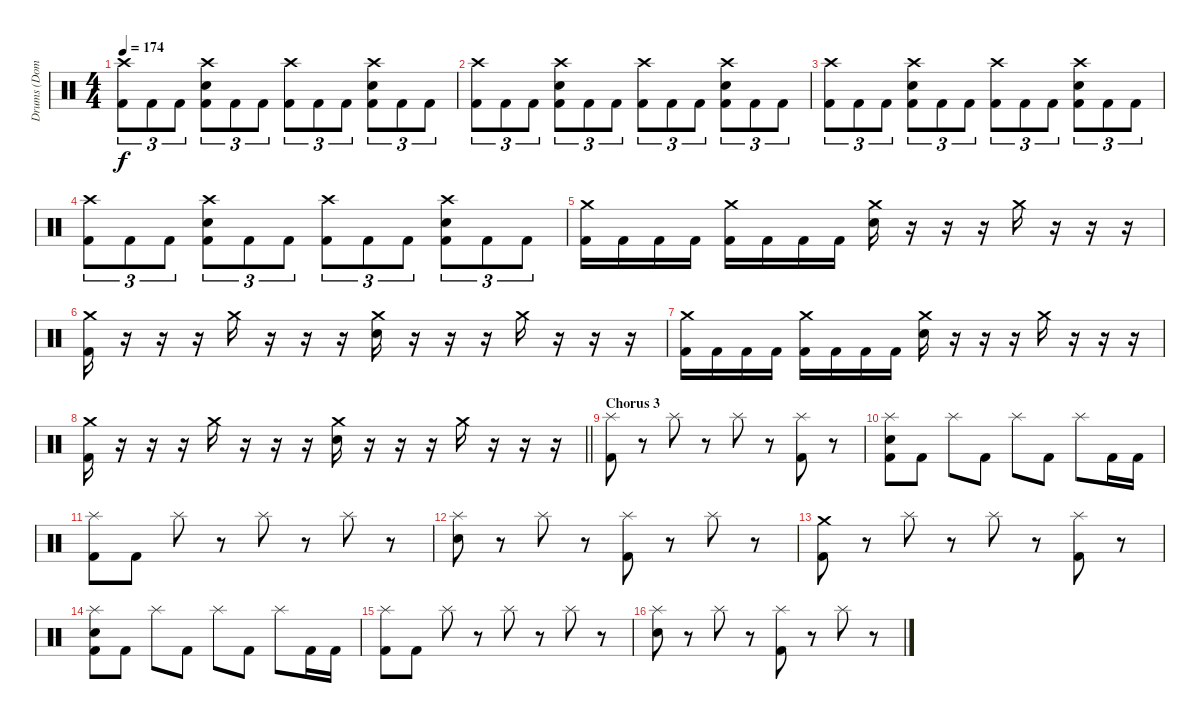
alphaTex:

\track ("Drums (Dominik)" "Drums (Dom") {instrument percussion}
\staff {score}
\articulation defaults
\ts (4 4)
\tempo 174
\clef neutral
\ks c
("Crash high (hit)" "Kick (hit) 2").8{tu (3 2) dy f} "Kick (hit) 2".8{tu (3 2)} "Kick (hit) 2".8{tu (3 2)} ("Crash high (hit)" "Electric Snare (hit)" "Kick (hit) 2").8{tu (3 2)} "Kick (hit) 2".8{tu (3 2)} "Kick (hit) 2".8{tu (3 2)} ("Crash high (hit)" "Kick (hit) 2").8{tu (3 2)} "Kick (hit) 2".8{tu (3 2)} "Kick (hit) 2".8{tu (3 2)} ("Crash high (hit)" "Electric Snare (hit)" "Kick (hit) 2").8{tu (3 2)} "Kick (hit) 2".8{tu (3 2)} "Kick (hit) 2".8{tu (3 2)} |
("Crash high (hit)" "Kick (hit) 2").8{tu (3 2)} "Kick (hit) 2".8{tu (3 2)} "Kick (hit) 2".8{tu (3 2)} ("Crash high (hit)" "Electric Snare (hit)" "Kick (hit) 2").8{tu (3 2)} "Kick (hit) 2".8{tu (3 2)} "Kick (hit) 2".8{tu (3 2)} ("Crash high (hit)" "Kick (hit) 2").8{tu (3 2)} "Kick (hit) 2".8{tu (3 2)} "Kick (hit) 2".8{tu (3 2)} ("Crash high (hit)" "Electric Snare (hit)" "Kick (hit) 2").8{tu (3 2)} "Kick (hit) 2".8{tu (3 2)} "Kick (hit) 2".8{tu (3 2)} |
("Crash high (hit)" "Kick (hit) 2").8{tu (3 2)} "Kick (hit) 2".8{tu (3 2)} "Kick (hit) 2".8{tu (3 2)} ("Crash high (hit)" "Electric Snare (hit)" "Kick (hit) 2").8{tu (3 2)} "Kick (hit) 2".8{tu (3 2)} "Kick (hit) 2".8{tu (3 2)} ("Crash high (hit)" "Kick (hit) 2").8{tu (3 2)} "Kick (hit) 2".8{tu (3 2)} "Kick (hit) 2".8{tu (3 2)} ("Crash high (hit)" "Electric Snare (hit)" "Kick (hit) 2").8{tu (3 2)} "Kick (hit) 2".8{tu (3 2)} "Kick (hit) 2".8{tu (3 2)} |
("Crash high (hit)" "Kick (hit) 2").8{tu (3 2)} "Kick (hit) 2".8{tu (3 2)} "Kick (hit) 2".8{tu (3 2)} ("Crash high (hit)" "Electric Snare (hit)" "Kick (hit) 2").8{tu (3 2)} "Kick (hit) 2".8{tu (3 2)} "Kick (hit) 2".8{tu (3 2)} ("Crash high (hit)" "Kick (hit) 2").8{tu (3 2)} "Kick (hit) 2".8{tu (3 2)} "Kick (hit) 2".8{tu (3 2)} ("Crash high (hit)" "Electric Snare (hit)" "Kick (hit) 2").8{tu (3 2)} "Kick (hit) 2".8{tu (3 2)} "Kick (hit) 2".8{tu (3 2)} |
("Crash medium (hit)" "Kick (hit) 2").16 "Kick (hit) 2".16 "Kick (hit) 2".16 "Kick (hit) 2".16 ("Crash medium (hit)" "Kick (hit) 2").16 "Kick (hit) 2".16 "Kick (hit) 2".16 "Kick (hit) 2".16 ("Crash medium (hit)" "Electric Snare (hit)").16 r.16 r.16 r.16 "Crash medium (hit)".16 r.16 r.16 r.16 |
("Crash medium (hit)" "Kick (hit) 2").16 r.16 r.16 r.16 "Crash medium (hit)".16 r.16 r.16 r.16 ("Crash medium (hit)" "Electric Snare (hit)").16 r.16 r.16 r.16 "Crash medium (hit)".16 r.16 r.16 r.16 |
("Crash medium (hit)" "Kick (hit) 2").16 "Kick (hit) 2".16 "Kick (hit) 2".16 "Kick (hit) 2".16 ("Crash medium (hit)" "Kick (hit) 2").16 "Kick (hit) 2".16 "Kick (hit) 2".16 "Kick (hit) 2".16 ("Crash medium (hit)" "Electric Snare (hit)").16 r.16 r.16 r.16 "Crash medium (hit)".16 r.16 r.16 r.16 |
\barLineRight lightlight
("Crash medium (hit)" "Kick (hit) 2").16 r.16 r.16 r.16 "Crash medium (hit)".16 r.16 r.16 r.16 ("Crash medium (hit)" "Electric Snare (hit)").16 r.16 r.16 r.16 "Crash medium (hit)".16 r.16 r.16 r.16 |
\section ("" "Chorus 3")
("Splash (hit)" "Kick (hit) 2").8 r.8 "Splash (hit)".8 r.8 "Splash (hit)".8 r.8 ("Splash (hit)" "Kick (hit) 2").8 r.8 |
("Splash (hit)" "Electric Snare (hit)" "Kick (hit) 2").8 "Kick (hit) 2".8 "Splash (hit)".8 "Kick (hit) 2".8 "Splash (hit)".8 "Kick (hit) 2".8 "Splash (hit)".8 "Kick (hit) 2".16 "Kick (hit) 2".16 |
("Splash (hit)" "Kick (hit) 2").8 "Kick (hit) 2".8 "Splash (hit)".8 r.8 "Splash (hit)".8 r.8 "Splash (hit)".8 r.8 |
("Splash (hit)" "Electric Snare (hit)").8 r.8 "Splash (hit)".8 r.8 ("Splash (hit)" "Kick (hit) 2").8 r.8 "Splash (hit)".8 r.8 |
("Crash medium (hit)" "Kick (hit) 2").8 r.8 "Splash (hit)".8 r.8 "Splash (hit)".8 r.8 ("Splash (hit)" "Kick (hit) 2").8 r.8 |
("Splash (hit)" "Electric Snare (hit)" "Kick (hit) 2").8 "Kick (hit) 2".8 "Splash (hit)".8 "Kick (hit) 2".8 "Splash (hit)".8 "Kick (hit) 2".8 "Splash (hit)".8 "Kick (hit) 2".16 "Kick (hit) 2".16 |
("Splash (hit)" "Kick (hit) 2").8 "Kick (hit) 2".8 "Splash (hit)".8 r.8 "Splash (hit)".8 r.8 "Splash (hit)".8 r.8 |
("Splash (hit)" "Electric Snare (hit)").8 r.8 "Splash (hit)".8 r.8 ("Splash (hit)" "Kick (hit) 2").8 r.8 "Splash (hit)".8 r.8
